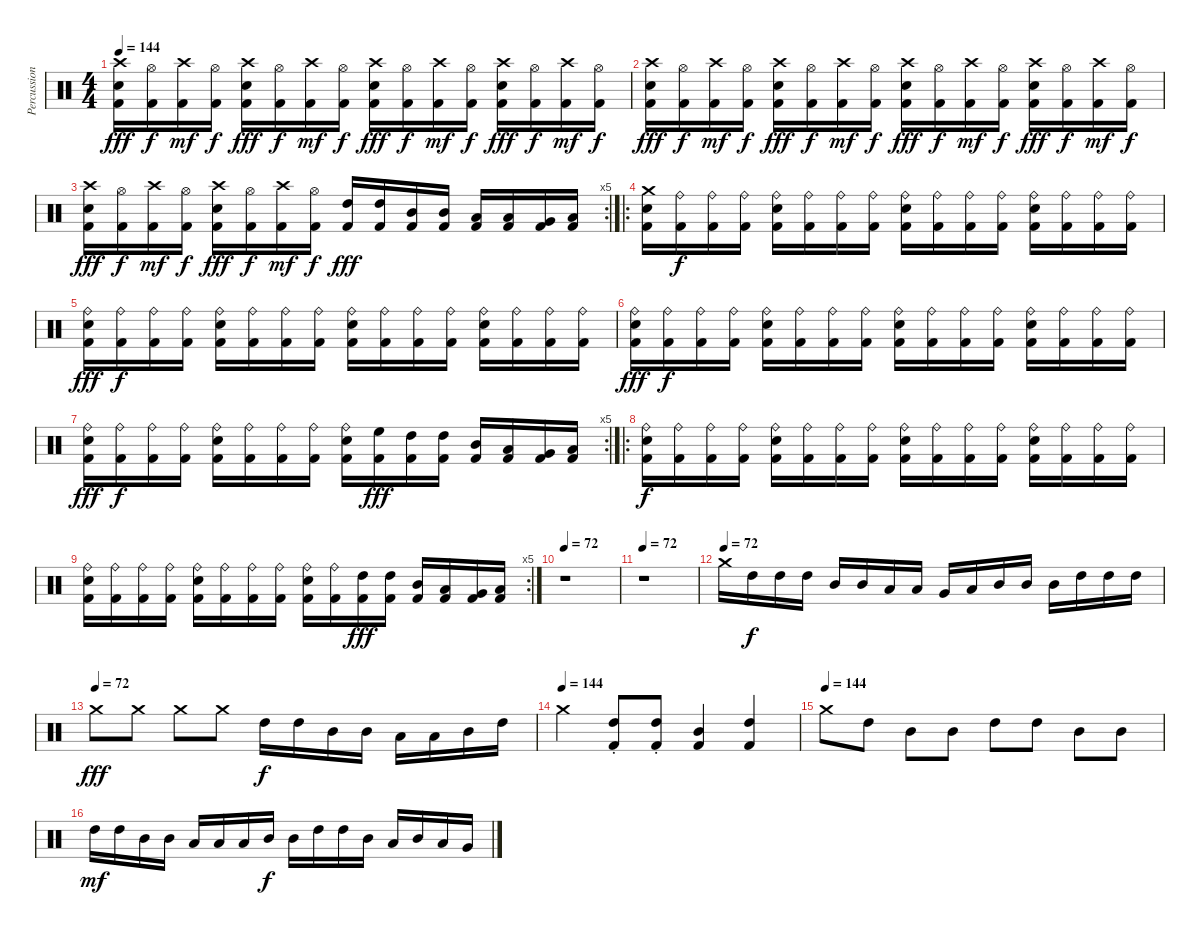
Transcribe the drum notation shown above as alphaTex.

\track ("Percussion -  Bard Faust" "Percussion") {instrument percussion}
\staff {score}
\articulation defaults
\ts (4 4)
\tempo 144
\clef neutral
\ks c
("Crash high (hit)" "Electric Snare (hit)" "Kick (hit) 2").16{dy fff} ("Hi-Hat (open)" "Kick (hit) 2").16{dy f} ("Crash high (hit)" "Kick (hit) 2").16{dy mf} ("Hi-Hat (open)" "Kick (hit) 2").16{dy f} ("Crash high (hit)" "Electric Snare (hit)" "Kick (hit) 2").16{dy fff} ("Hi-Hat (open)" "Kick (hit) 2").16{dy f} ("Crash high (hit)" "Kick (hit) 2").16{dy mf} ("Hi-Hat (open)" "Kick (hit) 2").16{dy f} ("Crash high (hit)" "Electric Snare (hit)" "Kick (hit) 2").16{dy fff} ("Hi-Hat (open)" "Kick (hit) 2").16{dy f} ("Crash high (hit)" "Kick (hit) 2").16{dy mf} ("Hi-Hat (open)" "Kick (hit) 2").16{dy f} ("Crash high (hit)" "Electric Snare (hit)" "Kick (hit) 2").16{dy fff} ("Hi-Hat (open)" "Kick (hit) 2").16{dy f} ("Crash high (hit)" "Kick (hit) 2").16{dy mf} ("Hi-Hat (open)" "Kick (hit) 2").16{dy f} |
("Crash high (hit)" "Electric Snare (hit)" "Kick (hit) 2").16{dy fff} ("Hi-Hat (open)" "Kick (hit) 2").16{dy f} ("Crash high (hit)" "Kick (hit) 2").16{dy mf} ("Hi-Hat (open)" "Kick (hit) 2").16{dy f} ("Crash high (hit)" "Electric Snare (hit)" "Kick (hit) 2").16{dy fff} ("Hi-Hat (open)" "Kick (hit) 2").16{dy f} ("Crash high (hit)" "Kick (hit) 2").16{dy mf} ("Hi-Hat (open)" "Kick (hit) 2").16{dy f} ("Crash high (hit)" "Electric Snare (hit)" "Kick (hit) 2").16{dy fff} ("Hi-Hat (open)" "Kick (hit) 2").16{dy f} ("Crash high (hit)" "Kick (hit) 2").16{dy mf} ("Hi-Hat (open)" "Kick (hit) 2").16{dy f} ("Crash high (hit)" "Electric Snare (hit)" "Kick (hit) 2").16{dy fff} ("Hi-Hat (open)" "Kick (hit) 2").16{dy f} ("Crash high (hit)" "Kick (hit) 2").16{dy mf} ("Hi-Hat (open)" "Kick (hit) 2").16{dy f} |
\rc 5
("Crash high (hit)" "Electric Snare (hit)" "Kick (hit) 2").16{dy fff} ("Hi-Hat (open)" "Kick (hit) 2").16{dy f} ("Crash high (hit)" "Kick (hit) 2").16{dy mf} ("Hi-Hat (open)" "Kick (hit) 2").16{dy f} ("Crash high (hit)" "Electric Snare (hit)" "Kick (hit) 2").16{dy fff} ("Hi-Hat (open)" "Kick (hit) 2").16{dy f} ("Crash high (hit)" "Kick (hit) 2").16{dy mf} ("Hi-Hat (open)" "Kick (hit) 2").16{dy f} ("High Tom (hit)" "Kick (hit) 2").16{dy fff} ("High Tom (hit)" "Kick (hit) 2").16 ("Mid Tom (hit)" "Kick (hit) 2").16 ("Mid Tom (hit)" "Kick (hit) 2").16 ("Low Tom (hit)" "Kick (hit) 2").16 ("Low Tom (hit)" "Kick (hit) 2").16 ("Very Low Tom (hit)" "Kick (hit) 2").16 ("Low Floor Tom (hit)" "Kick (hit) 2").16 |
\ro
("Electric Snare (hit)" "Crash medium (hit)" "Kick (hit) 2").16 ("Ride (bell)" "Kick (hit) 2").16{dy f} ("Ride (bell)" "Kick (hit) 2").16 ("Ride (bell)" "Kick (hit) 2").16 ("Electric Snare (hit)" "Ride (bell)" "Kick (hit) 2").16 ("Ride (bell)" "Kick (hit) 2").16 ("Ride (bell)" "Kick (hit) 2").16 ("Ride (bell)" "Kick (hit) 2").16 ("Electric Snare (hit)" "Ride (bell)" "Kick (hit) 2").16 ("Ride (bell)" "Kick (hit) 2").16 ("Ride (bell)" "Kick (hit) 2").16 ("Ride (bell)" "Kick (hit) 2").16 ("Electric Snare (hit)" "Ride (bell)" "Kick (hit) 2").16 ("Ride (bell)" "Kick (hit) 2").16 ("Ride (bell)" "Kick (hit) 2").16 ("Ride (bell)" "Kick (hit) 2").16 |
("Electric Snare (hit)" "Ride (bell)" "Kick (hit) 2").16{dy fff} ("Ride (bell)" "Kick (hit) 2").16{dy f} ("Ride (bell)" "Kick (hit) 2").16 ("Ride (bell)" "Kick (hit) 2").16 ("Electric Snare (hit)" "Ride (bell)" "Kick (hit) 2").16 ("Ride (bell)" "Kick (hit) 2").16 ("Ride (bell)" "Kick (hit) 2").16 ("Ride (bell)" "Kick (hit) 2").16 ("Electric Snare (hit)" "Ride (bell)" "Kick (hit) 2").16 ("Ride (bell)" "Kick (hit) 2").16 ("Ride (bell)" "Kick (hit) 2").16 ("Ride (bell)" "Kick (hit) 2").16 ("Electric Snare (hit)" "Ride (bell)" "Kick (hit) 2").16 ("Ride (bell)" "Kick (hit) 2").16 ("Ride (bell)" "Kick (hit) 2").16 ("Ride (bell)" "Kick (hit) 2").16 |
("Electric Snare (hit)" "Ride (bell)" "Kick (hit) 2").16{dy fff} ("Ride (bell)" "Kick (hit) 2").16{dy f} ("Ride (bell)" "Kick (hit) 2").16 ("Ride (bell)" "Kick (hit) 2").16 ("Electric Snare (hit)" "Ride (bell)" "Kick (hit) 2").16 ("Ride (bell)" "Kick (hit) 2").16 ("Ride (bell)" "Kick (hit) 2").16 ("Ride (bell)" "Kick (hit) 2").16 ("Electric Snare (hit)" "Ride (bell)" "Kick (hit) 2").16 ("Ride (bell)" "Kick (hit) 2").16 ("Ride (bell)" "Kick (hit) 2").16 ("Ride (bell)" "Kick (hit) 2").16 ("Electric Snare (hit)" "Ride (bell)" "Kick (hit) 2").16 ("Ride (bell)" "Kick (hit) 2").16 ("Ride (bell)" "Kick (hit) 2").16 ("Ride (bell)" "Kick (hit) 2").16 |
\rc 5
("Electric Snare (hit)" "Ride (bell)" "Kick (hit) 2").16{dy fff} ("Ride (bell)" "Kick (hit) 2").16{dy f} ("Ride (bell)" "Kick (hit) 2").16 ("Ride (bell)" "Kick (hit) 2").16 ("Electric Snare (hit)" "Ride (bell)" "Kick (hit) 2").16 ("Ride (bell)" "Kick (hit) 2").16 ("Ride (bell)" "Kick (hit) 2").16 ("Ride (bell)" "Kick (hit) 2").16 ("Electric Snare (hit)" "Ride (bell)" "Kick (hit) 2").16 ("High Floor Tom (hit)" "Kick (hit) 2").16{dy fff} ("High Tom (hit)" "Kick (hit) 2").16 ("High Tom (hit)" "Kick (hit) 2").16 ("Mid Tom (hit)" "Kick (hit) 2").16 ("Low Tom (hit)" "Kick (hit) 2").16 ("Very Low Tom (hit)" "Kick (hit) 2").16 ("Low Floor Tom (hit)" "Kick (hit) 2").16 |
\ro
("Ride (bell)" "Electric Snare (hit)" "Kick (hit) 2").16{dy f} ("Ride (bell)" "Kick (hit) 2").16 ("Ride (bell)" "Kick (hit) 2").16 ("Ride (bell)" "Kick (hit) 2").16 ("Ride (bell)" "Electric Snare (hit)" "Kick (hit) 2").16 ("Ride (bell)" "Kick (hit) 2").16 ("Ride (bell)" "Kick (hit) 2").16 ("Ride (bell)" "Kick (hit) 2").16 ("Ride (bell)" "Electric Snare (hit)" "Kick (hit) 2").16 ("Ride (bell)" "Kick (hit) 2").16 ("Ride (bell)" "Kick (hit) 2").16 ("Ride (bell)" "Kick (hit) 2").16 ("Ride (bell)" "Electric Snare (hit)" "Kick (hit) 2").16 ("Ride (bell)" "Kick (hit) 2").16 ("Ride (bell)" "Kick (hit) 2").16 ("Ride (bell)" "Kick (hit) 2").16 |
\rc 5
("Ride (bell)" "Electric Snare (hit)" "Kick (hit) 2").16 ("Ride (bell)" "Kick (hit) 2").16 ("Ride (bell)" "Kick (hit) 2").16 ("Ride (bell)" "Kick (hit) 2").16 ("Ride (bell)" "Electric Snare (hit)" "Kick (hit) 2").16 ("Ride (bell)" "Kick (hit) 2").16 ("Ride (bell)" "Kick (hit) 2").16 ("Ride (bell)" "Kick (hit) 2").16 ("Ride (bell)" "Electric Snare (hit)" "Kick (hit) 2").16 ("Ride (bell)" "Kick (hit) 2").16 ("High Tom (hit)" "Kick (hit) 2").16{dy fff} ("High Tom (hit)" "Kick (hit) 2").16 ("Mid Tom (hit)" "Kick (hit) 2").16 ("Low Tom (hit)" "Kick (hit) 2").16 ("Very Low Tom (hit)" "Kick (hit) 2").16 ("Low Floor Tom (hit)" "Kick (hit) 2").16 |
\tempo 72
r.1 |
\tempo 72
r.1 |
\tempo (72)
"Crash medium (hit)".16 "High Tom (hit)".16{dy f} "High Tom (hit)".16 "High Tom (hit)".16 "Mid Tom (hit)".16 "Mid Tom (hit)".16 "Low Tom (hit)".16 "Low Tom (hit)".16 "Very Low Tom (hit)".16 "Low Tom (hit)".16 "Mid Tom (hit)".16 "Mid Tom (hit)".16 "Mid Tom (hit)".16 "High Tom (hit)".16 "High Tom (hit)".16 "High Tom (hit)".16 |
\tempo (72)
"Crash medium (hit)".8{dy fff} "Crash medium (hit)".8 "Crash medium (hit)".8 "Crash medium (hit)".8 "High Tom (hit)".16{dy f} "High Tom (hit)".16 "Mid Tom (hit)".16 "Mid Tom (hit)".16 "Low Tom (hit)".16 "Low Tom (hit)".16 "Mid Tom (hit)".16 "High Tom (hit)".16 |
\tempo (144)
"Crash medium (hit)".4 ("High Tom (hit)"{st} "Kick (hit) 2").8 ("High Tom (hit)"{st} "Kick (hit) 2").8 ("Mid Tom (hit)" "Kick (hit) 2").4 ("High Tom (hit)" "Kick (hit) 2").4 |
\tempo (144)
"Crash medium (hit)".8 "High Tom (hit)".8 "Mid Tom (hit)".8 "Mid Tom (hit)".8 "High Tom (hit)".8 "High Tom (hit)".8 "Mid Tom (hit)".8 "Mid Tom (hit)".8 |
"High Tom (hit)".16{dy mf} "High Tom (hit)".16 "Mid Tom (hit)".16 "Mid Tom (hit)".16 "Low Tom (hit)".16 "Low Tom (hit)".16 "Low Tom (hit)".16 "Mid Tom (hit)".16{dy f} "Mid Tom (hit)".16 "High Tom (hit)".16 "High Tom (hit)".16 "Mid Tom (hit)".16 "Low Tom (hit)".16 "Mid Tom (hit)".16 "Low Tom (hit)".16 "Very Low Tom (hit)".16
